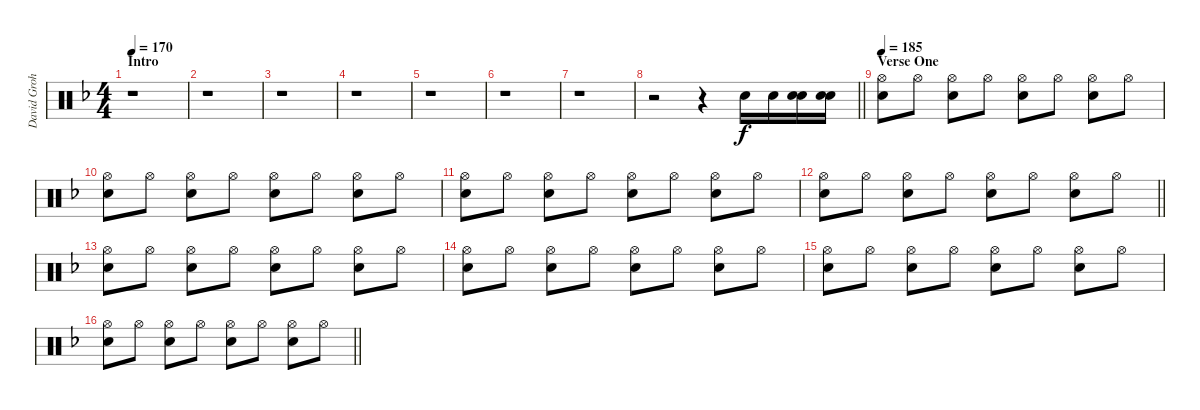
\track ("David Grohl/Alfredo Ortiz" "David Groh") {instrument percussion}
\staff {score}
\articulation defaults
\ts (4 4)
\section ("" "Intro")
\tempo 170
\clef neutral
\ks f
r.1{dy f} |
r.1 |
r.1 |
r.1 |
r.1 |
r.1 |
r.1 |
\barLineRight lightlight
r.2 r.4 "Snare (hit) 2".16 "Snare (hit) 2".16 ("Electric Snare (hit)" "Snare (hit) 2").16 ("Electric Snare (hit)" "Snare (hit) 2").16 |
\section ("" "Verse One")
\tempo 185
("Snare (hit) 2" "Hi-Hat (open)").8 "Hi-Hat (open)".8 ("Snare (hit) 2" "Hi-Hat (open)").8 "Hi-Hat (open)".8 ("Snare (hit) 2" "Hi-Hat (open)").8 "Hi-Hat (open)".8 ("Snare (hit) 2" "Hi-Hat (open)").8 "Hi-Hat (open)".8 |
("Snare (hit) 2" "Hi-Hat (open)").8 "Hi-Hat (open)".8 ("Snare (hit) 2" "Hi-Hat (open)").8 "Hi-Hat (open)".8 ("Snare (hit) 2" "Hi-Hat (open)").8 "Hi-Hat (open)".8 ("Snare (hit) 2" "Hi-Hat (open)").8 "Hi-Hat (open)".8 |
("Snare (hit) 2" "Hi-Hat (open)").8 "Hi-Hat (open)".8 ("Snare (hit) 2" "Hi-Hat (open)").8 "Hi-Hat (open)".8 ("Snare (hit) 2" "Hi-Hat (open)").8 "Hi-Hat (open)".8 ("Snare (hit) 2" "Hi-Hat (open)").8 "Hi-Hat (open)".8 |
\barLineRight lightlight
("Snare (hit) 2" "Hi-Hat (open)").8 "Hi-Hat (open)".8 ("Snare (hit) 2" "Hi-Hat (open)").8 "Hi-Hat (open)".8 ("Snare (hit) 2" "Hi-Hat (open)").8 "Hi-Hat (open)".8 ("Snare (hit) 2" "Hi-Hat (open)").8 "Hi-Hat (open)".8 |
("Snare (hit) 2" "Hi-Hat (open)").8 "Hi-Hat (open)".8 ("Snare (hit) 2" "Hi-Hat (open)").8 "Hi-Hat (open)".8 ("Snare (hit) 2" "Hi-Hat (open)").8 "Hi-Hat (open)".8 ("Snare (hit) 2" "Hi-Hat (open)").8 "Hi-Hat (open)".8 |
("Snare (hit) 2" "Hi-Hat (open)").8 "Hi-Hat (open)".8 ("Snare (hit) 2" "Hi-Hat (open)").8 "Hi-Hat (open)".8 ("Snare (hit) 2" "Hi-Hat (open)").8 "Hi-Hat (open)".8 ("Snare (hit) 2" "Hi-Hat (open)").8 "Hi-Hat (open)".8 |
("Snare (hit) 2" "Hi-Hat (open)").8 "Hi-Hat (open)".8 ("Snare (hit) 2" "Hi-Hat (open)").8 "Hi-Hat (open)".8 ("Snare (hit) 2" "Hi-Hat (open)").8 "Hi-Hat (open)".8 ("Snare (hit) 2" "Hi-Hat (open)").8 "Hi-Hat (open)".8 |
\barLineRight lightlight
("Snare (hit) 2" "Hi-Hat (open)").8 "Hi-Hat (open)".8 ("Snare (hit) 2" "Hi-Hat (open)").8 "Hi-Hat (open)".8 ("Snare (hit) 2" "Hi-Hat (open)").8 "Hi-Hat (open)".8 ("Snare (hit) 2" "Hi-Hat (open)").8 "Hi-Hat (open)".8
